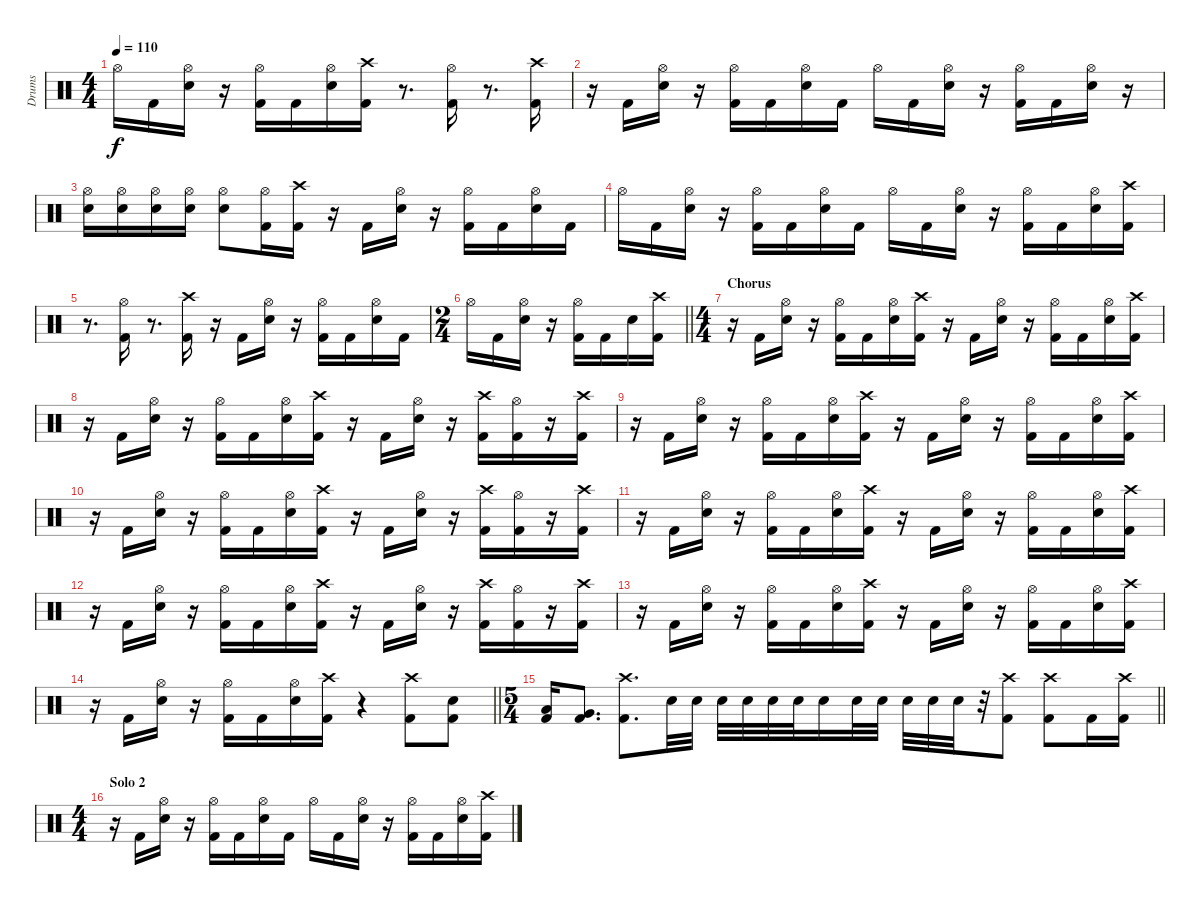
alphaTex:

\track ("Drums" "Drums") {instrument percussion}
\staff {score}
\articulation defaults
\ts (4 4)
\tempo 110
\clef neutral
\ks c "Hi-Hat (open)".16{dy f} "Kick (hit) 2".16
("Hi-Hat (open)" "Snare (hit) 2").16 r.16 ("Hi-Hat (open)" "Kick (hit) 2").16 "Kick (hit) 2".16 ("Hi-Hat (open)" "Snare (hit) 2").16 ("Crash high (hit)" "Kick (hit) 2").16 r.8{d} ("Hi-Hat (open)" "Kick (hit) 2").16 r.8{d} ("Crash high (hit)" "Kick (hit) 2").16 |
r.16 "Kick (hit) 2".16 ("Hi-Hat (open)" "Snare (hit) 2").16 r.16 ("Hi-Hat (open)" "Kick (hit) 2").16 "Kick (hit) 2".16 ("Hi-Hat (open)" "Snare (hit) 2").16 "Kick (hit) 2".16 "Hi-Hat (open)".16 "Kick (hit) 2".16 ("Hi-Hat (open)" "Snare (hit) 2").16 r.16 ("Hi-Hat (open)" "Kick (hit) 2").16 "Kick (hit) 2".16 ("Hi-Hat (open)" "Snare (hit) 2").16 r.16 |
("Hi-Hat (open)" "Snare (hit) 2").16 ("Hi-Hat (open)" "Snare (hit) 2").16 ("Hi-Hat (open)" "Snare (hit) 2").16 ("Hi-Hat (open)" "Snare (hit) 2").16 ("Hi-Hat (open)" "Snare (hit) 2").8 ("Hi-Hat (open)" "Kick (hit) 2").16 ("Crash high (hit)" "Kick (hit) 2").16 r.16 "Kick (hit) 2".16 ("Hi-Hat (open)" "Snare (hit) 2").16 r.16 ("Hi-Hat (open)" "Kick (hit) 2").16 "Kick (hit) 2".16 ("Hi-Hat (open)" "Snare (hit) 2").16 "Kick (hit) 2".16 |
"Hi-Hat (open)".16 "Kick (hit) 2".16 ("Hi-Hat (open)" "Snare (hit) 2").16 r.16 ("Hi-Hat (open)" "Kick (hit) 2").16 "Kick (hit) 2".16 ("Hi-Hat (open)" "Snare (hit) 2").16 "Kick (hit) 2".16 "Hi-Hat (open)".16 "Kick (hit) 2".16 ("Hi-Hat (open)" "Snare (hit) 2").16 r.16 ("Hi-Hat (open)" "Kick (hit) 2").16 "Kick (hit) 2".16 ("Hi-Hat (open)" "Snare (hit) 2").16 ("Crash high (hit)" "Kick (hit) 2").16 |
r.8{d} ("Hi-Hat (open)" "Kick (hit) 2").16 r.8{d} ("Crash high (hit)" "Kick (hit) 2").16 r.16 "Kick (hit) 2".16 ("Hi-Hat (open)" "Snare (hit) 2").16 r.16 ("Hi-Hat (open)" "Kick (hit) 2").16 "Kick (hit) 2".16 ("Hi-Hat (open)" "Snare (hit) 2").16 "Kick (hit) 2".16 |
\ts (2 4)
\barLineRight lightlight "Hi-Hat (open)".16 "Kick (hit) 2".16
("Hi-Hat (open)" "Snare (hit) 2").16 r.16 ("Hi-Hat (open)" "Kick (hit) 2").16 "Kick (hit) 2".16 "Snare (hit) 2".16 ("Crash high (hit)" "Kick (hit) 2").16 |
\ts (4 4)
\section ("" "Chorus")
r.16 "Kick (hit) 2".16 ("Hi-Hat (open)" "Snare (hit) 2").16 r.16 ("Hi-Hat (open)" "Kick (hit) 2").16 "Kick (hit) 2".16 ("Hi-Hat (open)" "Snare (hit) 2").16 ("Crash high (hit)" "Kick (hit) 2").16 r.16 "Kick (hit) 2".16 ("Hi-Hat (open)" "Snare (hit) 2").16 r.16 ("Hi-Hat (open)" "Kick (hit) 2").16 "Kick (hit) 2".16 ("Hi-Hat (open)" "Snare (hit) 2").16 ("Crash high (hit)" "Kick (hit) 2").16 |
r.16 "Kick (hit) 2".16 ("Hi-Hat (open)" "Snare (hit) 2").16 r.16 ("Hi-Hat (open)" "Kick (hit) 2").16 "Kick (hit) 2".16 ("Hi-Hat (open)" "Snare (hit) 2").16 ("Crash high (hit)" "Kick (hit) 2").16 r.16 "Kick (hit) 2".16 ("Hi-Hat (open)" "Snare (hit) 2").16 r.16 ("Crash high (hit)" "Kick (hit) 2").16 ("Hi-Hat (open)" "Kick (hit) 2").16 r.16 ("Crash high (hit)" "Kick (hit) 2").16 |
r.16 "Kick (hit) 2".16 ("Hi-Hat (open)" "Snare (hit) 2").16 r.16 ("Hi-Hat (open)" "Kick (hit) 2").16 "Kick (hit) 2".16 ("Hi-Hat (open)" "Snare (hit) 2").16 ("Crash high (hit)" "Kick (hit) 2").16 r.16 "Kick (hit) 2".16 ("Hi-Hat (open)" "Snare (hit) 2").16 r.16 ("Hi-Hat (open)" "Kick (hit) 2").16 "Kick (hit) 2".16 ("Hi-Hat (open)" "Snare (hit) 2").16 ("Crash high (hit)" "Kick (hit) 2").16 |
r.16 "Kick (hit) 2".16 ("Hi-Hat (open)" "Snare (hit) 2").16 r.16 ("Hi-Hat (open)" "Kick (hit) 2").16 "Kick (hit) 2".16 ("Hi-Hat (open)" "Snare (hit) 2").16 ("Crash high (hit)" "Kick (hit) 2").16 r.16 "Kick (hit) 2".16 ("Hi-Hat (open)" "Snare (hit) 2").16 r.16 ("Crash high (hit)" "Kick (hit) 2").16 ("Hi-Hat (open)" "Kick (hit) 2").16 r.16 ("Crash high (hit)" "Kick (hit) 2").16 |
r.16 "Kick (hit) 2".16 ("Hi-Hat (open)" "Snare (hit) 2").16 r.16 ("Hi-Hat (open)" "Kick (hit) 2").16 "Kick (hit) 2".16 ("Hi-Hat (open)" "Snare (hit) 2").16 ("Crash high (hit)" "Kick (hit) 2").16 r.16 "Kick (hit) 2".16 ("Hi-Hat (open)" "Snare (hit) 2").16 r.16 ("Hi-Hat (open)" "Kick (hit) 2").16 "Kick (hit) 2".16 ("Hi-Hat (open)" "Snare (hit) 2").16 ("Crash high (hit)" "Kick (hit) 2").16 |
r.16 "Kick (hit) 2".16 ("Hi-Hat (open)" "Snare (hit) 2").16 r.16 ("Hi-Hat (open)" "Kick (hit) 2").16 "Kick (hit) 2".16 ("Hi-Hat (open)" "Snare (hit) 2").16 ("Crash high (hit)" "Kick (hit) 2").16 r.16 "Kick (hit) 2".16 ("Hi-Hat (open)" "Snare (hit) 2").16 r.16 ("Crash high (hit)" "Kick (hit) 2").16 ("Hi-Hat (open)" "Kick (hit) 2").16 r.16 ("Crash high (hit)" "Kick (hit) 2").16 |
r.16 "Kick (hit) 2".16 ("Hi-Hat (open)" "Snare (hit) 2").16 r.16 ("Hi-Hat (open)" "Kick (hit) 2").16 "Kick (hit) 2".16 ("Hi-Hat (open)" "Snare (hit) 2").16 ("Crash high (hit)" "Kick (hit) 2").16 r.16 "Kick (hit) 2".16 ("Hi-Hat (open)" "Snare (hit) 2").16 r.16 ("Hi-Hat (open)" "Kick (hit) 2").16 "Kick (hit) 2".16 ("Hi-Hat (open)" "Snare (hit) 2").16 ("Crash high (hit)" "Kick (hit) 2").16 |
\barLineRight lightlight
r.16 "Kick (hit) 2".16 ("Hi-Hat (open)" "Snare (hit) 2").16 r.16 ("Hi-Hat (open)" "Kick (hit) 2").16 "Kick (hit) 2".16 ("Hi-Hat (open)" "Snare (hit) 2").16 ("Crash high (hit)" "Kick (hit) 2").16 r.4 ("Crash high (hit)" "Kick (hit) 2").8 ("Snare (hit) 2" "Kick (hit) 2").8 |
\ts (5 4)
\barLineRight lightlight
("Low Tom (hit)" "Kick (hit) 2").16 ("Very Low Tom (hit)" "Kick (hit) 2").8{d} ("Crash high (hit)" "Kick (hit) 2").8{d} "Snare (hit) 2".32 "Snare (hit) 2".32 "Snare (hit) 2".32 "Snare (hit) 2".32 "Snare (hit) 2".32 "Snare (hit) 2".32 "Snare (hit) 2".16 "Snare (hit) 2".32 "Snare (hit) 2".32 "Snare (hit) 2".32 "Snare (hit) 2".32 "Snare (hit) 2".32 r.32 ("Crash high (hit)" "Kick (hit) 2").8 ("Crash high (hit)" "Kick (hit) 2").8 "Kick (hit) 2".16 ("Crash high (hit)" "Kick (hit) 2").16 |
\ts (4 4)
\section ("" "Solo 2")
r.16 "Kick (hit) 2".16 ("Hi-Hat (open)" "Snare (hit) 2").16 r.16 ("Hi-Hat (open)" "Kick (hit) 2").16 "Kick (hit) 2".16 ("Hi-Hat (open)" "Snare (hit) 2").16 "Kick (hit) 2".16 "Hi-Hat (open)".16 "Kick (hit) 2".16 ("Hi-Hat (open)" "Snare (hit) 2").16 r.16 ("Hi-Hat (open)" "Kick (hit) 2").16 "Kick (hit) 2".16 ("Hi-Hat (open)" "Snare (hit) 2").16 ("Crash high (hit)" "Kick (hit) 2").16
